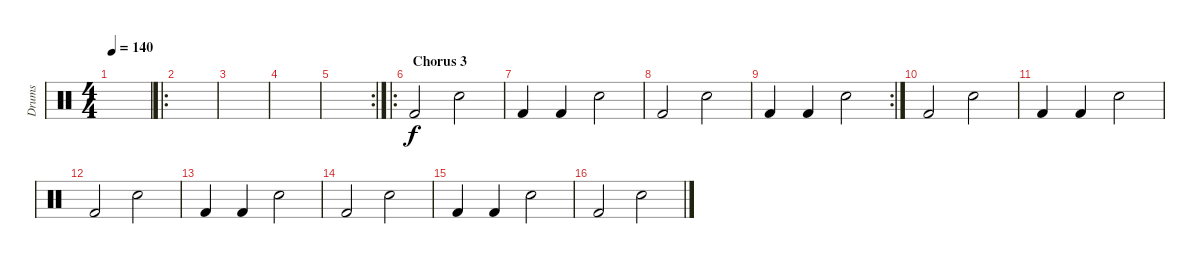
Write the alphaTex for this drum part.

\track ("Drums" "Drums") {instrument percussion}
\staff {score}
\articulation defaults
\ts (4 4)
\tempo 140
\clef neutral
\ks c
|
\ro
|
|
|
\rc 2
|
\ro
\section ("" " Chorus 3")
"Kick (hit) 2".2 "Snare (hit) 2".2 |
"Kick (hit) 2".4 "Kick (hit) 2".4 "Snare (hit) 2".2 |
"Kick (hit) 2".2 "Snare (hit) 2".2 |
\rc 2 "Kick (hit) 2".4 "Kick (hit) 2".4 "Snare (hit) 2".2
|
"Kick (hit) 2".2 "Snare (hit) 2".2 |
"Kick (hit) 2".4 "Kick (hit) 2".4 "Snare (hit) 2".2 |
"Kick (hit) 2".2 "Snare (hit) 2".2 |
"Kick (hit) 2".4 "Kick (hit) 2".4 "Snare (hit) 2".2 |
"Kick (hit) 2".2 "Snare (hit) 2".2 |
"Kick (hit) 2".4 "Kick (hit) 2".4 "Snare (hit) 2".2 |
"Kick (hit) 2".2 "Snare (hit) 2".2
